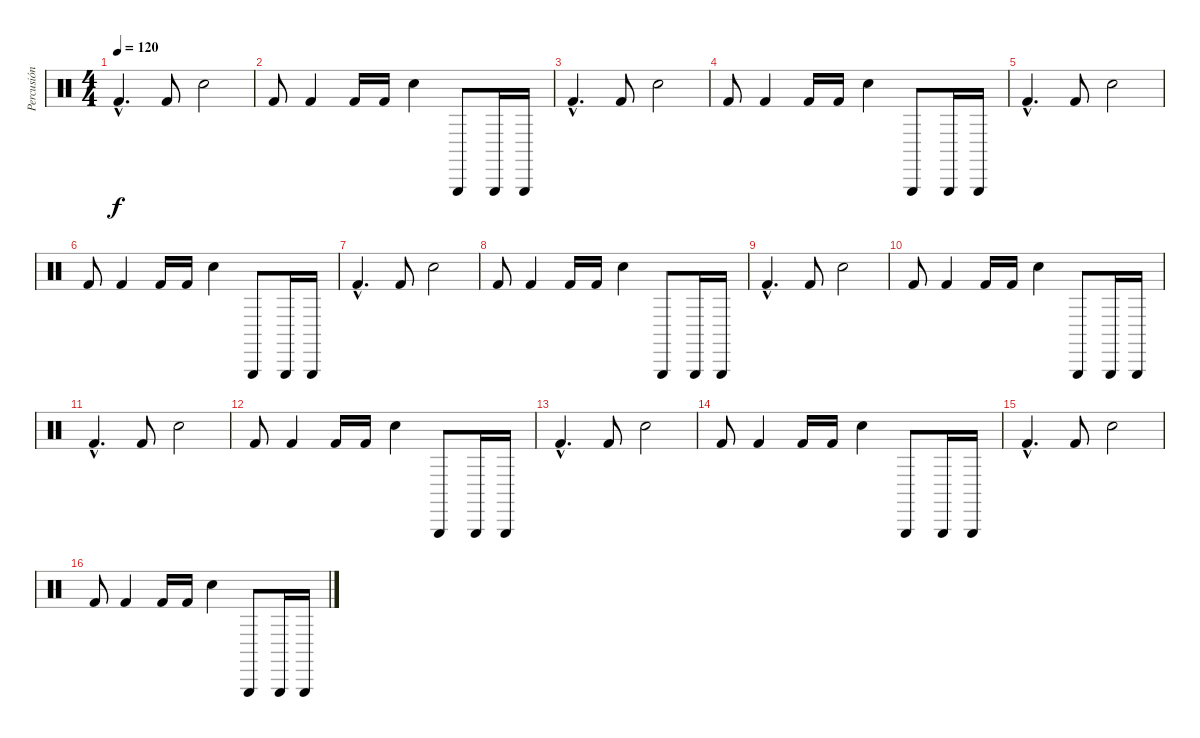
\track ("Percusión" "Percusión") {instrument percussion}
\staff {score}
\articulation defaults
\ts (4 4)
\tempo 120
\clef neutral
\ks c "Kick (hit) 2"{hac}.4{d dy f} "Kick (hit) 2".8 "Electric Snare (hit)".2
|
"Kick (hit) 2".8 "Kick (hit) 2".4 "Kick (hit) 2".16 "Kick (hit) 2".16 "Electric Snare (hit)".4 "Triangle (hit)".8 "Triangle (hit)".16 "Triangle (hit)".16 |
"Kick (hit) 2"{hac}.4{d} "Kick (hit) 2".8 "Electric Snare (hit)".2 |
"Kick (hit) 2".8 "Kick (hit) 2".4 "Kick (hit) 2".16 "Kick (hit) 2".16 "Electric Snare (hit)".4 "Triangle (hit)".8 "Triangle (hit)".16 "Triangle (hit)".16 |
"Kick (hit) 2"{hac}.4{d} "Kick (hit) 2".8 "Electric Snare (hit)".2 |
"Kick (hit) 2".8 "Kick (hit) 2".4 "Kick (hit) 2".16 "Kick (hit) 2".16 "Electric Snare (hit)".4 "Triangle (hit)".8 "Triangle (hit)".16 "Triangle (hit)".16 |
"Kick (hit) 2"{hac}.4{d} "Kick (hit) 2".8 "Electric Snare (hit)".2 |
"Kick (hit) 2".8 "Kick (hit) 2".4 "Kick (hit) 2".16 "Kick (hit) 2".16 "Electric Snare (hit)".4 "Triangle (hit)".8 "Triangle (hit)".16 "Triangle (hit)".16 |
"Kick (hit) 2"{hac}.4{d} "Kick (hit) 2".8 "Electric Snare (hit)".2 |
"Kick (hit) 2".8 "Kick (hit) 2".4 "Kick (hit) 2".16 "Kick (hit) 2".16 "Electric Snare (hit)".4 "Triangle (hit)".8 "Triangle (hit)".16 "Triangle (hit)".16 |
"Kick (hit) 2"{hac}.4{d} "Kick (hit) 2".8 "Electric Snare (hit)".2 |
"Kick (hit) 2".8 "Kick (hit) 2".4 "Kick (hit) 2".16 "Kick (hit) 2".16 "Electric Snare (hit)".4 "Triangle (hit)".8 "Triangle (hit)".16 "Triangle (hit)".16 |
"Kick (hit) 2"{hac}.4{d} "Kick (hit) 2".8 "Electric Snare (hit)".2 |
"Kick (hit) 2".8 "Kick (hit) 2".4 "Kick (hit) 2".16 "Kick (hit) 2".16 "Electric Snare (hit)".4 "Triangle (hit)".8 "Triangle (hit)".16 "Triangle (hit)".16 |
"Kick (hit) 2"{hac}.4{d} "Kick (hit) 2".8 "Electric Snare (hit)".2 |
"Kick (hit) 2".8 "Kick (hit) 2".4 "Kick (hit) 2".16 "Kick (hit) 2".16 "Electric Snare (hit)".4 "Triangle (hit)".8 "Triangle (hit)".16 "Triangle (hit)".16
